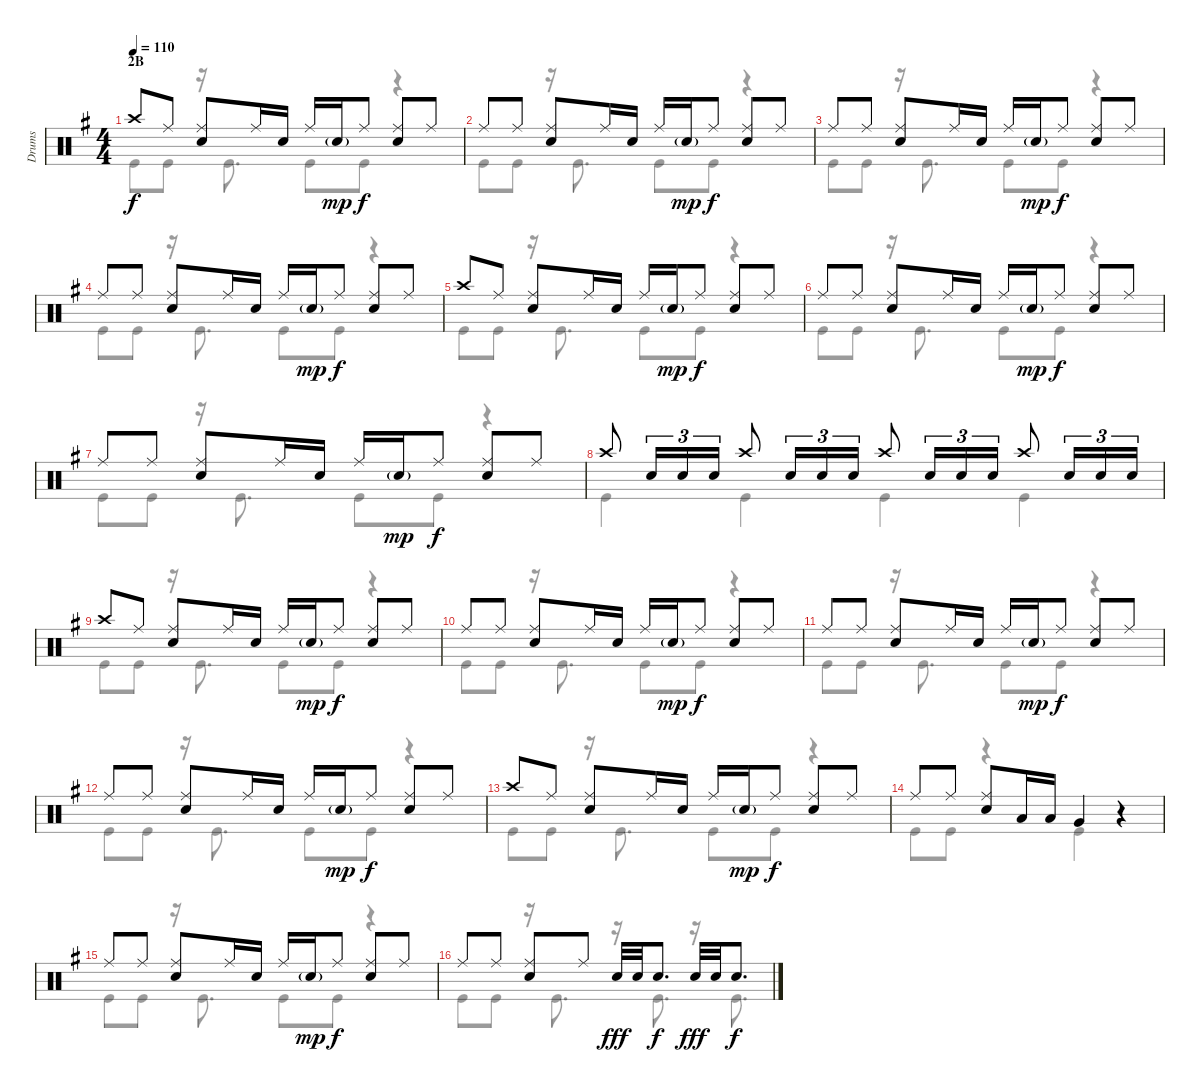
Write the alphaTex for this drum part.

\track ("Drums" "Drums") {instrument percussion}
\staff {score}
\articulation defaults
\voice
\ts (4 4)
\section ("" "2B")
\tempo 110
\clef neutral
\ks g "Crash high (hit)".8{dy f} "Ride (middle)".8
("Ride (middle)" "Snare (hit) 2").8 "Ride (middle)".16 "Snare (hit) 2".16 "Ride (middle)".16 "Snare (hit) 2"{g}.16{dy mp} "Ride (middle)".8{dy f} ("Ride (middle)" "Snare (hit) 2").8 "Ride (middle)".8 |
"Ride (middle)".8 "Ride (middle)".8 ("Ride (middle)" "Snare (hit) 2").8 "Ride (middle)".16 "Snare (hit) 2".16 "Ride (middle)".16 "Snare (hit) 2"{g}.16{dy mp} "Ride (middle)".8{dy f} ("Ride (middle)" "Snare (hit) 2").8 "Ride (middle)".8 |
"Ride (middle)".8 "Ride (middle)".8 ("Ride (middle)" "Snare (hit) 2").8 "Ride (middle)".16 "Snare (hit) 2".16 "Ride (middle)".16 "Snare (hit) 2"{g}.16{dy mp} "Ride (middle)".8{dy f} ("Ride (middle)" "Snare (hit) 2").8 "Ride (middle)".8 |
"Ride (middle)".8 "Ride (middle)".8 ("Ride (middle)" "Snare (hit) 2").8 "Ride (middle)".16 "Snare (hit) 2".16 "Ride (middle)".16 "Snare (hit) 2"{g}.16{dy mp} "Ride (middle)".8{dy f} ("Ride (middle)" "Snare (hit) 2").8 "Ride (middle)".8 |
"Crash high (hit)".8 "Ride (middle)".8 ("Ride (middle)" "Snare (hit) 2").8 "Ride (middle)".16 "Snare (hit) 2".16 "Ride (middle)".16 "Snare (hit) 2"{g}.16{dy mp} "Ride (middle)".8{dy f} ("Ride (middle)" "Snare (hit) 2").8 "Ride (middle)".8 |
"Ride (middle)".8 "Ride (middle)".8 ("Ride (middle)" "Snare (hit) 2").8 "Ride (middle)".16 "Snare (hit) 2".16 "Ride (middle)".16 "Snare (hit) 2"{g}.16{dy mp} "Ride (middle)".8{dy f} ("Ride (middle)" "Snare (hit) 2").8 "Ride (middle)".8 |
"Ride (middle)".8 "Ride (middle)".8 ("Ride (middle)" "Snare (hit) 2").8 "Ride (middle)".16 "Snare (hit) 2".16 "Ride (middle)".16 "Snare (hit) 2"{g}.16{dy mp} "Ride (middle)".8{dy f} ("Ride (middle)" "Snare (hit) 2").8 "Ride (middle)".8 |
"Crash high (hit)".8 "Snare (hit) 2".16{tu (3 2)} "Snare (hit) 2".16{tu (3 2)} "Snare (hit) 2".16{tu (3 2)} "Crash high (hit)".8 "Snare (hit) 2".16{tu (3 2)} "Snare (hit) 2".16{tu (3 2)} "Snare (hit) 2".16{tu (3 2)} "Crash high (hit)".8 "Snare (hit) 2".16{tu (3 2)} "Snare (hit) 2".16{tu (3 2)} "Snare (hit) 2".16{tu (3 2)} "Crash high (hit)".8 "Snare (hit) 2".16{tu (3 2)} "Snare (hit) 2".16{tu (3 2)} "Snare (hit) 2".16{tu (3 2)} |
"Crash high (hit)".8 "Ride (middle)".8 ("Ride (middle)" "Snare (hit) 2").8 "Ride (middle)".16 "Snare (hit) 2".16 "Ride (middle)".16 "Snare (hit) 2"{g}.16{dy mp} "Ride (middle)".8{dy f} ("Ride (middle)" "Snare (hit) 2").8 "Ride (middle)".8 |
"Ride (middle)".8 "Ride (middle)".8 ("Ride (middle)" "Snare (hit) 2").8 "Ride (middle)".16 "Snare (hit) 2".16 "Ride (middle)".16 "Snare (hit) 2"{g}.16{dy mp} "Ride (middle)".8{dy f} ("Ride (middle)" "Snare (hit) 2").8 "Ride (middle)".8 |
"Ride (middle)".8 "Ride (middle)".8 ("Ride (middle)" "Snare (hit) 2").8 "Ride (middle)".16 "Snare (hit) 2".16 "Ride (middle)".16 "Snare (hit) 2"{g}.16{dy mp} "Ride (middle)".8{dy f} ("Ride (middle)" "Snare (hit) 2").8 "Ride (middle)".8 |
"Ride (middle)".8 "Ride (middle)".8 ("Ride (middle)" "Snare (hit) 2").8 "Ride (middle)".16 "Snare (hit) 2".16 "Ride (middle)".16 "Snare (hit) 2"{g}.16{dy mp} "Ride (middle)".8{dy f} ("Ride (middle)" "Snare (hit) 2").8 "Ride (middle)".8 |
"Crash high (hit)".8 "Ride (middle)".8 ("Ride (middle)" "Snare (hit) 2").8 "Ride (middle)".16 "Snare (hit) 2".16 "Ride (middle)".16 "Snare (hit) 2"{g}.16{dy mp} "Ride (middle)".8{dy f} ("Ride (middle)" "Snare (hit) 2").8 "Ride (middle)".8 |
"Ride (middle)".8 "Ride (middle)".8 ("Ride (middle)" "Snare (hit) 2").8 "Low Tom (hit)".16 "Low Tom (hit)".16 "Very Low Tom (hit)".4 r.4 |
"Ride (middle)".8 "Ride (middle)".8 ("Ride (middle)" "Snare (hit) 2").8 "Ride (middle)".16 "Snare (hit) 2".16 "Ride (middle)".16 "Snare (hit) 2"{g}.16{dy mp} "Ride (middle)".8{dy f} ("Ride (middle)" "Snare (hit) 2").8 "Ride (middle)".8 |
"Ride (middle)".8 "Ride (middle)".8 ("Ride (middle)" "Snare (hit) 2").8 "Ride (middle)".8 "Snare (hit) 2".32{dy fff} "Snare (hit) 2".32 "Snare (hit) 2".8{d dy f} "Snare (hit) 2".32{dy fff} "Snare (hit) 2".32 "Snare (hit) 2".8{d dy f}
\voice
\clef neutral
\ottava regular
\simile none
\ks g "Kick (hit)".8{dy f} "Kick (hit)".8
r.16 "Kick (hit)".8{d} "Kick (hit)".8 "Kick (hit)".8 r.4 |
"Kick (hit)".8 "Kick (hit)".8 r.16 "Kick (hit)".8{d} "Kick (hit)".8 "Kick (hit)".8 r.4 |
"Kick (hit)".8 "Kick (hit)".8 r.16 "Kick (hit)".8{d} "Kick (hit)".8 "Kick (hit)".8 r.4 |
"Kick (hit)".8 "Kick (hit)".8 r.16 "Kick (hit)".8{d} "Kick (hit)".8 "Kick (hit)".8 r.4 |
"Kick (hit)".8 "Kick (hit)".8 r.16 "Kick (hit)".8{d} "Kick (hit)".8 "Kick (hit)".8 r.4 |
"Kick (hit)".8 "Kick (hit)".8 r.16 "Kick (hit)".8{d} "Kick (hit)".8 "Kick (hit)".8 r.4 |
"Kick (hit)".8 "Kick (hit)".8 r.16 "Kick (hit)".8{d} "Kick (hit)".8 "Kick (hit)".8 r.4 |
"Kick (hit)".4 "Kick (hit)".4 "Kick (hit)".4 "Kick (hit)".4 |
"Kick (hit)".8 "Kick (hit)".8 r.16 "Kick (hit)".8{d} "Kick (hit)".8 "Kick (hit)".8 r.4 |
"Kick (hit)".8 "Kick (hit)".8 r.16 "Kick (hit)".8{d} "Kick (hit)".8 "Kick (hit)".8 r.4 |
"Kick (hit)".8 "Kick (hit)".8 r.16 "Kick (hit)".8{d} "Kick (hit)".8 "Kick (hit)".8 r.4 |
"Kick (hit)".8 "Kick (hit)".8 r.16 "Kick (hit)".8{d} "Kick (hit)".8 "Kick (hit)".8 r.4 |
"Kick (hit)".8 "Kick (hit)".8 r.16 "Kick (hit)".8{d} "Kick (hit)".8 "Kick (hit)".8 r.4 |
"Kick (hit)".8 "Kick (hit)".8 r.4 "Kick (hit)".4 r.4 |
"Kick (hit)".8 "Kick (hit)".8 r.16 "Kick (hit)".8{d} "Kick (hit)".8 "Kick (hit)".8 r.4 |
"Kick (hit)".8 "Kick (hit)".8 r.16 "Kick (hit)".8{d} r.16 "Kick (hit)".8{d} r.16 "Kick (hit)".8{d}
